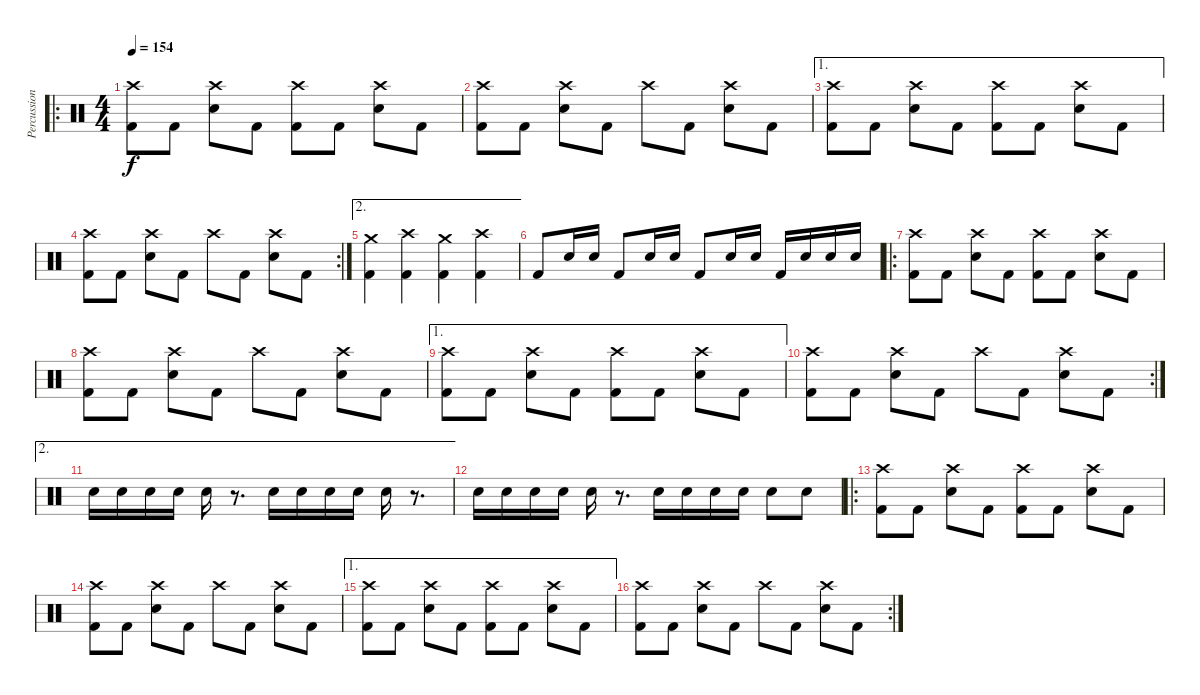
\track ("Percussion" "Percussion") {instrument percussion}
\staff {score}
\articulation defaults
\ro
\ts (4 4)
\tempo 154
\clef neutral
\ks c
("Crash high (hit)" "Kick (hit) 2").8{dy f} "Kick (hit) 2".8 ("Crash high (hit)" "Snare (hit) 2").8 "Kick (hit) 2".8 ("Crash high (hit)" "Kick (hit) 2").8 "Kick (hit) 2".8 ("Crash high (hit)" "Snare (hit) 2").8 "Kick (hit) 2".8 |
("Crash high (hit)" "Kick (hit) 2").8 "Kick (hit) 2".8 ("Crash high (hit)" "Snare (hit) 2").8 "Kick (hit) 2".8 "Crash high (hit)".8 "Kick (hit) 2".8 ("Crash high (hit)" "Snare (hit) 2").8 "Kick (hit) 2".8 |
\ae 1
("Crash high (hit)" "Kick (hit) 2").8 "Kick (hit) 2".8 ("Crash high (hit)" "Snare (hit) 2").8 "Kick (hit) 2".8 ("Crash high (hit)" "Kick (hit) 2").8 "Kick (hit) 2".8 ("Crash high (hit)" "Snare (hit) 2").8 "Kick (hit) 2".8 |
\rc 2
("Crash high (hit)" "Kick (hit) 2").8 "Kick (hit) 2".8 ("Crash high (hit)" "Snare (hit) 2").8 "Kick (hit) 2".8 "Crash high (hit)".8 "Kick (hit) 2".8 ("Crash high (hit)" "Snare (hit) 2").8 "Kick (hit) 2".8 |
\ae 2
("Crash medium (hit)" "Kick (hit) 2").4 ("Crash high (hit)" "Kick (hit) 2").4 ("Crash medium (hit)" "Kick (hit) 2").4 ("Crash high (hit)" "Kick (hit) 2").4 |
"Kick (hit) 2".8 "Snare (hit) 2".16 "Snare (hit) 2".16 "Kick (hit) 2".8 "Snare (hit) 2".16 "Snare (hit) 2".16 "Kick (hit) 2".8 "Snare (hit) 2".16 "Snare (hit) 2".16 "Kick (hit) 2".16 "Snare (hit) 2".16 "Snare (hit) 2".16 "Snare (hit) 2".16 |
\ro
("Crash high (hit)" "Kick (hit) 2").8 "Kick (hit) 2".8 ("Crash high (hit)" "Snare (hit) 2").8 "Kick (hit) 2".8 ("Crash high (hit)" "Kick (hit) 2").8 "Kick (hit) 2".8 ("Crash high (hit)" "Snare (hit) 2").8 "Kick (hit) 2".8 |
("Crash high (hit)" "Kick (hit) 2").8 "Kick (hit) 2".8 ("Crash high (hit)" "Snare (hit) 2").8 "Kick (hit) 2".8 "Crash high (hit)".8 "Kick (hit) 2".8 ("Crash high (hit)" "Snare (hit) 2").8 "Kick (hit) 2".8 |
\ae 1
("Crash high (hit)" "Kick (hit) 2").8 "Kick (hit) 2".8 ("Crash high (hit)" "Snare (hit) 2").8 "Kick (hit) 2".8 ("Crash high (hit)" "Kick (hit) 2").8 "Kick (hit) 2".8 ("Crash high (hit)" "Snare (hit) 2").8 "Kick (hit) 2".8 |
\rc 2
("Crash high (hit)" "Kick (hit) 2").8 "Kick (hit) 2".8 ("Crash high (hit)" "Snare (hit) 2").8 "Kick (hit) 2".8 "Crash high (hit)".8 "Kick (hit) 2".8 ("Crash high (hit)" "Snare (hit) 2").8 "Kick (hit) 2".8 |
\ae 2 "Snare (hit) 2".16 "Snare (hit) 2".16 "Snare (hit) 2".16 "Snare (hit) 2".16 "Snare (hit) 2".16
r.8{d} "Snare (hit) 2".16 "Snare (hit) 2".16 "Snare (hit) 2".16 "Snare (hit) 2".16 "Snare (hit) 2".16 r.8{d} |
"Snare (hit) 2".16 "Snare (hit) 2".16 "Snare (hit) 2".16 "Snare (hit) 2".16 "Snare (hit) 2".16 r.8{d} "Snare (hit) 2".16 "Snare (hit) 2".16 "Snare (hit) 2".16 "Snare (hit) 2".16 "Snare (hit) 2".8 "Snare (hit) 2".8 |
\ro
("Crash high (hit)" "Kick (hit) 2").8 "Kick (hit) 2".8 ("Crash high (hit)" "Snare (hit) 2").8 "Kick (hit) 2".8 ("Crash high (hit)" "Kick (hit) 2").8 "Kick (hit) 2".8 ("Crash high (hit)" "Snare (hit) 2").8 "Kick (hit) 2".8 |
("Crash high (hit)" "Kick (hit) 2").8 "Kick (hit) 2".8 ("Crash high (hit)" "Snare (hit) 2").8 "Kick (hit) 2".8 "Crash high (hit)".8 "Kick (hit) 2".8 ("Crash high (hit)" "Snare (hit) 2").8 "Kick (hit) 2".8 |
\ae 1
("Crash high (hit)" "Kick (hit) 2").8 "Kick (hit) 2".8 ("Crash high (hit)" "Snare (hit) 2").8 "Kick (hit) 2".8 ("Crash high (hit)" "Kick (hit) 2").8 "Kick (hit) 2".8 ("Crash high (hit)" "Snare (hit) 2").8 "Kick (hit) 2".8 |
\rc 2
("Crash high (hit)" "Kick (hit) 2").8 "Kick (hit) 2".8 ("Crash high (hit)" "Snare (hit) 2").8 "Kick (hit) 2".8 "Crash high (hit)".8 "Kick (hit) 2".8 ("Crash high (hit)" "Snare (hit) 2").8 "Kick (hit) 2".8
